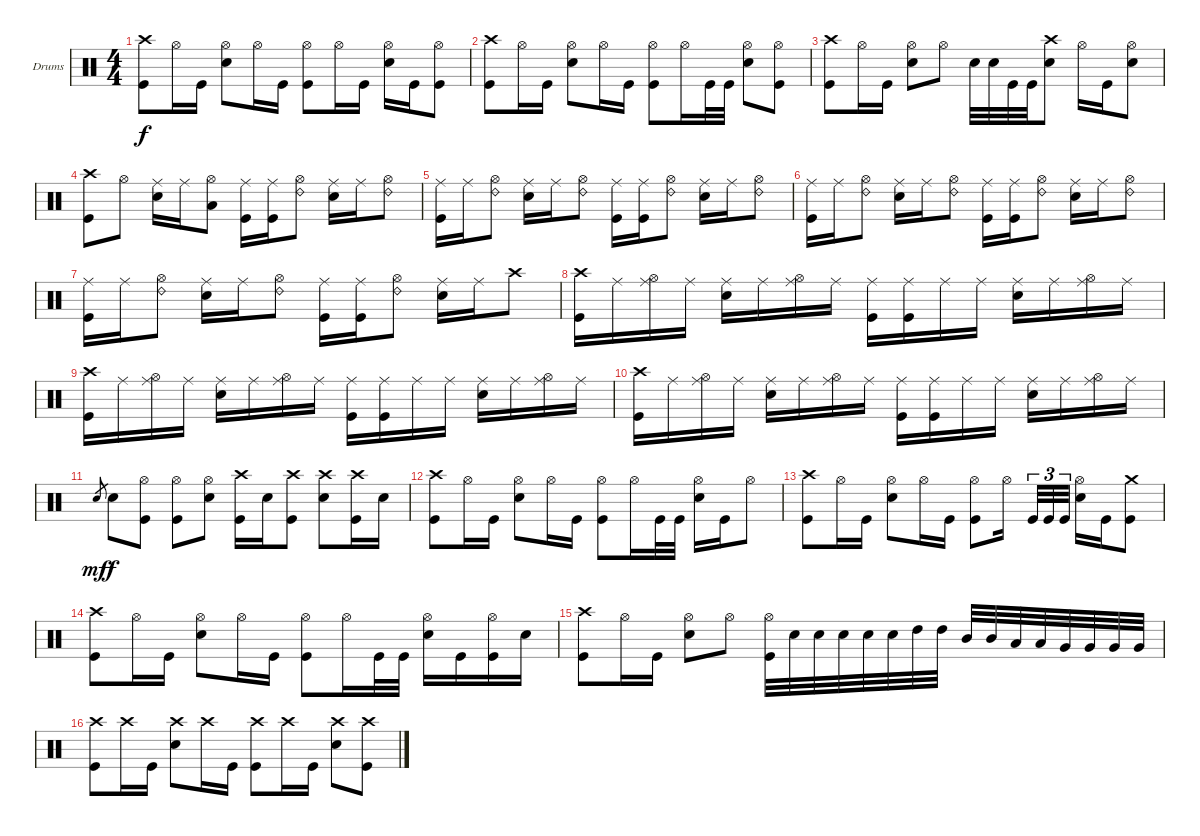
\bracketExtendMode groupsimilarinstruments
\firstSystemTrackNameOrientation horizontal
\otherSystemsTrackNameOrientation horizontal
\track ("Drumkit" "Drums") {instrument percussion}
\staff {score}
\articulation defaults
\ts (4 4)
\tempo (80 hide)
\clef neutral
\ks c
("Crash high (hit)" "Kick (hit)").8{dy f} "Hi-Hat (open)".16 "Kick (hit)".16 ("Hi-Hat (open)" "Snare (hit) 2").8 "Hi-Hat (open)".16 "Kick (hit)".16 ("Hi-Hat (open)" "Kick (hit)").8 "Hi-Hat (open)".16 "Kick (hit)".16 ("Hi-Hat (open)" "Snare (hit) 2").16 "Kick (hit)".16 ("Hi-Hat (open)" "Kick (hit)").8 |
("Crash high (hit)" "Kick (hit)").8 "Hi-Hat (open)".16 "Kick (hit)".16 ("Hi-Hat (open)" "Snare (hit) 2").8 "Hi-Hat (open)".16 "Kick (hit)".16 ("Hi-Hat (open)" "Kick (hit)").8 "Hi-Hat (open)".16 "Kick (hit)".32 "Kick (hit)".32 ("Hi-Hat (open)" "Snare (hit) 2").8 ("Hi-Hat (open)" "Kick (hit)").8 |
("Crash high (hit)" "Kick (hit)").8 "Hi-Hat (open)".16 "Kick (hit)".16 ("Hi-Hat (open)" "Snare (hit) 2").8 "Hi-Hat (open)".8 "Snare (hit) 2".32 "Snare (hit) 2".32 "Kick (hit)".32 "Kick (hit)".32 ("Crash high (hit)" "Snare (hit) 2").8 "Hi-Hat (open)".16 "Kick (hit)".16 ("Hi-Hat (open)" "Snare (hit) 2").8 |
("Crash high (hit)" "Kick (hit)").8 "Hi-Hat (open)".8 ("Ride (middle)" "Snare (hit) 2").16 "Ride (middle)".16 ("Hi-Hat (open)" "Low Tom (hit)").8 ("Ride (middle)" "Kick (hit)").16 ("Ride (middle)" "Kick (hit)").16 ("Hi-Hat (open)" "Ride (bell) 2").8 ("Ride (middle)" "Snare (hit) 2").16 "Ride (middle)".16 ("Hi-Hat (open)" "Ride (bell) 2").8 |
("Ride (middle)" "Kick (hit)").16 "Ride (middle)".16 ("Hi-Hat (open)" "Ride (bell) 2").8 ("Ride (middle)" "Snare (hit) 2").16 "Ride (middle)".16 ("Hi-Hat (open)" "Ride (bell) 2").8 ("Ride (middle)" "Kick (hit)").16 ("Ride (middle)" "Kick (hit)").16 ("Hi-Hat (open)" "Ride (bell) 2").8 ("Ride (middle)" "Snare (hit) 2").16 "Ride (middle)".16 ("Hi-Hat (open)" "Ride (bell) 2").8 |
("Ride (middle)" "Kick (hit)").16 "Ride (middle)".16 ("Hi-Hat (open)" "Ride (bell) 2").8 ("Ride (middle)" "Snare (hit) 2").16 "Ride (middle)".16 ("Hi-Hat (open)" "Ride (bell) 2").8 ("Ride (middle)" "Kick (hit)").16 ("Ride (middle)" "Kick (hit)").16 ("Hi-Hat (open)" "Ride (bell) 2").8 ("Ride (middle)" "Snare (hit) 2").16 "Ride (middle)".16 ("Hi-Hat (open)" "Ride (bell) 2").8 |
("Ride (middle)" "Kick (hit)").16 "Ride (middle)".16 ("Hi-Hat (open)" "Ride (bell) 2").8 ("Ride (middle)" "Snare (hit) 2").16 "Ride (middle)".16 ("Hi-Hat (open)" "Ride (bell) 2").8 ("Ride (middle)" "Kick (hit)").16 ("Ride (middle)" "Kick (hit)").16 ("Hi-Hat (open)" "Ride (bell) 2").8 ("Ride (middle)" "Snare (hit) 2").16 "Ride (middle)".16 "Crash high (hit)".8 |
("Crash high (hit)" "Kick (hit)").16 "Ride (middle)".16 ("Hi-Hat (open)" "Ride (middle)").16 "Ride (middle)".16 ("Ride (middle)" "Snare (hit) 2").16 "Ride (middle)".16 ("Hi-Hat (open)" "Ride (middle)").16 "Ride (middle)".16 ("Ride (middle)" "Kick (hit)").16 ("Ride (middle)" "Kick (hit)").16 "Ride (middle)".16 "Ride (middle)".16 ("Ride (middle)" "Snare (hit) 2").16 "Ride (middle)".16 ("Hi-Hat (open)" "Ride (middle)").16 "Ride (middle)".16 |
("Crash high (hit)" "Kick (hit)").16 "Ride (middle)".16 ("Hi-Hat (open)" "Ride (middle)").16 "Ride (middle)".16 ("Ride (middle)" "Snare (hit) 2").16 "Ride (middle)".16 ("Hi-Hat (open)" "Ride (middle)").16 "Ride (middle)".16 ("Ride (middle)" "Kick (hit)").16 ("Ride (middle)" "Kick (hit)").16 "Ride (middle)".16 "Ride (middle)".16 ("Ride (middle)" "Snare (hit) 2").16 "Ride (middle)".16 ("Hi-Hat (open)" "Ride (middle)").16 "Ride (middle)".16 |
("Crash high (hit)" "Kick (hit)").16 "Ride (middle)".16 ("Hi-Hat (open)" "Ride (middle)").16 "Ride (middle)".16 ("Ride (middle)" "Snare (hit) 2").16 "Ride (middle)".16 ("Hi-Hat (open)" "Ride (middle)").16 "Ride (middle)".16 ("Ride (middle)" "Kick (hit)").16 ("Ride (middle)" "Kick (hit)").16 "Ride (middle)".16 "Ride (middle)".16 ("Ride (middle)" "Snare (hit) 2").16 "Ride (middle)".16 ("Hi-Hat (open)" "Ride (middle)").16 "Ride (middle)".16 |
"Snare (hit) 2".8{gr dy mf} "Snare (hit) 2".8{dy f} ("Hi-Hat (open)" "Kick (hit)").8 ("Hi-Hat (open)" "Kick (hit)").8 ("Hi-Hat (open)" "Snare (hit) 2").8 ("Crash high (hit)" "Kick (hit)").16 "Snare (hit) 2".16 ("Crash high (hit)" "Kick (hit)").8 ("Crash high (hit)" "Snare (hit) 2").8 ("Crash high (hit)" "Kick (hit)").16 "Snare (hit) 2".16 |
("Crash high (hit)" "Kick (hit)").8 "Hi-Hat (open)".16 "Kick (hit)".16 ("Hi-Hat (open)" "Snare (hit) 2").8 "Hi-Hat (open)".16 "Kick (hit)".16 ("Hi-Hat (open)" "Kick (hit)").8 "Hi-Hat (open)".16 "Kick (hit)".32 "Kick (hit)".32 ("Hi-Hat (open)" "Snare (hit) 2").16 "Kick (hit)".16 "Hi-Hat (open)".8 |
("Crash high (hit)" "Kick (hit)").8 "Hi-Hat (open)".16 "Kick (hit)".16 ("Hi-Hat (open)" "Snare (hit) 2").8 "Hi-Hat (open)".16 "Kick (hit)".16 ("Hi-Hat (open)" "Kick (hit)").8 "Hi-Hat (open)".16 "Kick (hit)".32{tu (3 2)} "Kick (hit)".32{tu (3 2)} "Kick (hit)".32{tu (3 2)} ("Hi-Hat (open)" "Snare (hit) 2").16 "Kick (hit)".16 ("Crash medium (hit)" "Kick (hit)").8 |
("Crash high (hit)" "Kick (hit)").8 "Hi-Hat (open)".16 "Kick (hit)".16 ("Hi-Hat (open)" "Snare (hit) 2").8 "Hi-Hat (open)".16 "Kick (hit)".16 ("Hi-Hat (open)" "Kick (hit)").8 "Hi-Hat (open)".16 "Kick (hit)".32 "Kick (hit)".32 ("Hi-Hat (open)" "Snare (hit) 2").16 "Kick (hit)".16 ("Hi-Hat (open)" "Kick (hit)").16 "Snare (hit) 2".16 |
("Crash high (hit)" "Kick (hit)").8 "Hi-Hat (open)".16 "Kick (hit)".16 ("Hi-Hat (open)" "Snare (hit) 2").8 "Hi-Hat (open)".8 ("Hi-Hat (open)" "Kick (hit)").32 "Snare (hit) 2".32 "Snare (hit) 2".32 "Snare (hit) 2".32 "Snare (hit) 2".32 "Snare (hit) 2".32 "High Tom (hit)".32 "High Tom (hit)".32 "Mid Tom (hit)".32 "Mid Tom (hit)".32 "Low Tom (hit)".32 "Low Tom (hit)".32 "Very Low Tom (hit)".32 "Very Low Tom (hit)".32 "Very Low Tom (hit)".32 "Very Low Tom (hit)".32 |
("Crash high (hit)" "Kick (hit)").8 "Crash high (hit)".16 "Kick (hit)".16 ("Crash high (hit)" "Snare (hit) 2").8 "Crash high (hit)".16 "Kick (hit)".16 ("Crash high (hit)" "Kick (hit)").8 "Crash high (hit)".16 "Kick (hit)".16 ("Crash high (hit)" "Snare (hit) 2").8 ("Crash high (hit)" "Kick (hit)").8
